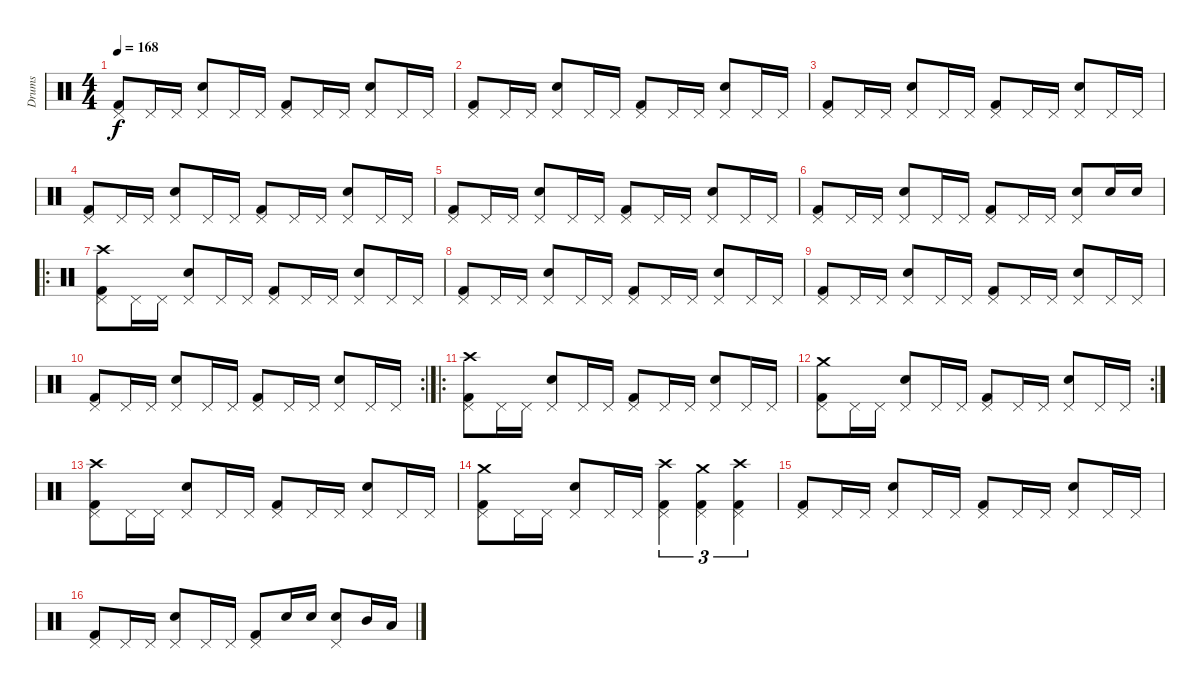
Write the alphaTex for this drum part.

\track ("Drums" "Drums") {instrument percussion}
\staff {score}
\articulation defaults
\ts (4 4)
\tempo 168
\clef neutral
\ks c
("Kick (hit) 2" "Pedal Hi-Hat (hit)").8{dy f} "Pedal Hi-Hat (hit)".16 "Pedal Hi-Hat (hit)".16 ("Snare (hit) 2" "Pedal Hi-Hat (hit)").8 "Pedal Hi-Hat (hit)".16 "Pedal Hi-Hat (hit)".16 ("Kick (hit) 2" "Pedal Hi-Hat (hit)").8 "Pedal Hi-Hat (hit)".16 "Pedal Hi-Hat (hit)".16 ("Snare (hit) 2" "Pedal Hi-Hat (hit)").8 "Pedal Hi-Hat (hit)".16 "Pedal Hi-Hat (hit)".16 |
("Kick (hit) 2" "Pedal Hi-Hat (hit)").8 "Pedal Hi-Hat (hit)".16 "Pedal Hi-Hat (hit)".16 ("Snare (hit) 2" "Pedal Hi-Hat (hit)").8 "Pedal Hi-Hat (hit)".16 "Pedal Hi-Hat (hit)".16 ("Kick (hit) 2" "Pedal Hi-Hat (hit)").8 "Pedal Hi-Hat (hit)".16 "Pedal Hi-Hat (hit)".16 ("Snare (hit) 2" "Pedal Hi-Hat (hit)").8 "Pedal Hi-Hat (hit)".16 "Pedal Hi-Hat (hit)".16 |
("Kick (hit) 2" "Pedal Hi-Hat (hit)").8 "Pedal Hi-Hat (hit)".16 "Pedal Hi-Hat (hit)".16 ("Snare (hit) 2" "Pedal Hi-Hat (hit)").8 "Pedal Hi-Hat (hit)".16 "Pedal Hi-Hat (hit)".16 ("Kick (hit) 2" "Pedal Hi-Hat (hit)").8 "Pedal Hi-Hat (hit)".16 "Pedal Hi-Hat (hit)".16 ("Snare (hit) 2" "Pedal Hi-Hat (hit)").8 "Pedal Hi-Hat (hit)".16 "Pedal Hi-Hat (hit)".16 |
("Kick (hit) 2" "Pedal Hi-Hat (hit)").8 "Pedal Hi-Hat (hit)".16 "Pedal Hi-Hat (hit)".16 ("Snare (hit) 2" "Pedal Hi-Hat (hit)").8 "Pedal Hi-Hat (hit)".16 "Pedal Hi-Hat (hit)".16 ("Kick (hit) 2" "Pedal Hi-Hat (hit)").8 "Pedal Hi-Hat (hit)".16 "Pedal Hi-Hat (hit)".16 ("Snare (hit) 2" "Pedal Hi-Hat (hit)").8 "Pedal Hi-Hat (hit)".16 "Pedal Hi-Hat (hit)".16 |
("Kick (hit) 2" "Pedal Hi-Hat (hit)").8 "Pedal Hi-Hat (hit)".16 "Pedal Hi-Hat (hit)".16 ("Snare (hit) 2" "Pedal Hi-Hat (hit)").8 "Pedal Hi-Hat (hit)".16 "Pedal Hi-Hat (hit)".16 ("Kick (hit) 2" "Pedal Hi-Hat (hit)").8 "Pedal Hi-Hat (hit)".16 "Pedal Hi-Hat (hit)".16 ("Snare (hit) 2" "Pedal Hi-Hat (hit)").8 "Pedal Hi-Hat (hit)".16 "Pedal Hi-Hat (hit)".16 |
("Kick (hit) 2" "Pedal Hi-Hat (hit)").8 "Pedal Hi-Hat (hit)".16 "Pedal Hi-Hat (hit)".16 ("Snare (hit) 2" "Pedal Hi-Hat (hit)").8 "Pedal Hi-Hat (hit)".16 "Pedal Hi-Hat (hit)".16 ("Kick (hit) 2" "Pedal Hi-Hat (hit)").8 "Pedal Hi-Hat (hit)".16 "Pedal Hi-Hat (hit)".16 ("Snare (hit) 2" "Pedal Hi-Hat (hit)").8 "Snare (hit) 2".16 "Snare (hit) 2".16 |
\ro
("Kick (hit) 2" "Pedal Hi-Hat (hit)" "Crash high (hit)").8 "Pedal Hi-Hat (hit)".16 "Pedal Hi-Hat (hit)".16 ("Snare (hit) 2" "Pedal Hi-Hat (hit)").8 "Pedal Hi-Hat (hit)".16 "Pedal Hi-Hat (hit)".16 ("Kick (hit) 2" "Pedal Hi-Hat (hit)").8 "Pedal Hi-Hat (hit)".16 "Pedal Hi-Hat (hit)".16 ("Snare (hit) 2" "Pedal Hi-Hat (hit)").8 "Pedal Hi-Hat (hit)".16 "Pedal Hi-Hat (hit)".16 |
("Kick (hit) 2" "Pedal Hi-Hat (hit)").8 "Pedal Hi-Hat (hit)".16 "Pedal Hi-Hat (hit)".16 ("Snare (hit) 2" "Pedal Hi-Hat (hit)").8 "Pedal Hi-Hat (hit)".16 "Pedal Hi-Hat (hit)".16 ("Kick (hit) 2" "Pedal Hi-Hat (hit)").8 "Pedal Hi-Hat (hit)".16 "Pedal Hi-Hat (hit)".16 ("Snare (hit) 2" "Pedal Hi-Hat (hit)").8 "Pedal Hi-Hat (hit)".16 "Pedal Hi-Hat (hit)".16 |
("Kick (hit) 2" "Pedal Hi-Hat (hit)").8 "Pedal Hi-Hat (hit)".16 "Pedal Hi-Hat (hit)".16 ("Snare (hit) 2" "Pedal Hi-Hat (hit)").8 "Pedal Hi-Hat (hit)".16 "Pedal Hi-Hat (hit)".16 ("Kick (hit) 2" "Pedal Hi-Hat (hit)").8 "Pedal Hi-Hat (hit)".16 "Pedal Hi-Hat (hit)".16 ("Snare (hit) 2" "Pedal Hi-Hat (hit)").8 "Pedal Hi-Hat (hit)".16 "Pedal Hi-Hat (hit)".16 |
\rc 2
("Kick (hit) 2" "Pedal Hi-Hat (hit)").8 "Pedal Hi-Hat (hit)".16 "Pedal Hi-Hat (hit)".16 ("Snare (hit) 2" "Pedal Hi-Hat (hit)").8 "Pedal Hi-Hat (hit)".16 "Pedal Hi-Hat (hit)".16 ("Kick (hit) 2" "Pedal Hi-Hat (hit)").8 "Pedal Hi-Hat (hit)".16 "Pedal Hi-Hat (hit)".16 ("Snare (hit) 2" "Pedal Hi-Hat (hit)").8 "Pedal Hi-Hat (hit)".16 "Pedal Hi-Hat (hit)".16 |
\ro
("Kick (hit) 2" "Pedal Hi-Hat (hit)" "Crash high (hit)").8 "Pedal Hi-Hat (hit)".16 "Pedal Hi-Hat (hit)".16 ("Snare (hit) 2" "Pedal Hi-Hat (hit)").8 "Pedal Hi-Hat (hit)".16 "Pedal Hi-Hat (hit)".16 ("Kick (hit) 2" "Pedal Hi-Hat (hit)").8 "Pedal Hi-Hat (hit)".16 "Pedal Hi-Hat (hit)".16 ("Snare (hit) 2" "Pedal Hi-Hat (hit)").8 "Pedal Hi-Hat (hit)".16 "Pedal Hi-Hat (hit)".16 |
\rc 2
("Kick (hit) 2" "Pedal Hi-Hat (hit)" "Crash medium (hit)").8 "Pedal Hi-Hat (hit)".16 "Pedal Hi-Hat (hit)".16 ("Snare (hit) 2" "Pedal Hi-Hat (hit)").8 "Pedal Hi-Hat (hit)".16 "Pedal Hi-Hat (hit)".16 ("Kick (hit) 2" "Pedal Hi-Hat (hit)").8 "Pedal Hi-Hat (hit)".16 "Pedal Hi-Hat (hit)".16 ("Snare (hit) 2" "Pedal Hi-Hat (hit)").8 "Pedal Hi-Hat (hit)".16 "Pedal Hi-Hat (hit)".16 |
("Kick (hit) 2" "Pedal Hi-Hat (hit)" "Crash high (hit)").8 "Pedal Hi-Hat (hit)".16 "Pedal Hi-Hat (hit)".16 ("Snare (hit) 2" "Pedal Hi-Hat (hit)").8 "Pedal Hi-Hat (hit)".16 "Pedal Hi-Hat (hit)".16 ("Kick (hit) 2" "Pedal Hi-Hat (hit)").8 "Pedal Hi-Hat (hit)".16 "Pedal Hi-Hat (hit)".16 ("Snare (hit) 2" "Pedal Hi-Hat (hit)").8 "Pedal Hi-Hat (hit)".16 "Pedal Hi-Hat (hit)".16 |
("Kick (hit) 2" "Pedal Hi-Hat (hit)" "Crash medium (hit)").8 "Pedal Hi-Hat (hit)".16 "Pedal Hi-Hat (hit)".16 ("Snare (hit) 2" "Pedal Hi-Hat (hit)").8 "Pedal Hi-Hat (hit)".16 "Pedal Hi-Hat (hit)".16 ("Kick (hit) 2" "Pedal Hi-Hat (hit)" "Crash high (hit)").4{tu (3 2)} ("Kick (hit) 2" "Pedal Hi-Hat (hit)" "Crash medium (hit)").4{tu (3 2)} ("Kick (hit) 2" "Pedal Hi-Hat (hit)" "Crash high (hit)").4{tu (3 2)} |
("Kick (hit) 2" "Pedal Hi-Hat (hit)").8 "Pedal Hi-Hat (hit)".16 "Pedal Hi-Hat (hit)".16 ("Snare (hit) 2" "Pedal Hi-Hat (hit)").8 "Pedal Hi-Hat (hit)".16 "Pedal Hi-Hat (hit)".16 ("Kick (hit) 2" "Pedal Hi-Hat (hit)").8 "Pedal Hi-Hat (hit)".16 "Pedal Hi-Hat (hit)".16 ("Snare (hit) 2" "Pedal Hi-Hat (hit)").8 "Pedal Hi-Hat (hit)".16 "Pedal Hi-Hat (hit)".16 |
("Kick (hit) 2" "Pedal Hi-Hat (hit)").8 "Pedal Hi-Hat (hit)".16 "Pedal Hi-Hat (hit)".16 ("Snare (hit) 2" "Pedal Hi-Hat (hit)").8 "Pedal Hi-Hat (hit)".16 "Pedal Hi-Hat (hit)".16 ("Kick (hit) 2" "Pedal Hi-Hat (hit)").8 "Snare (hit) 2".16 "Snare (hit) 2".16 ("Snare (hit) 2" "Pedal Hi-Hat (hit)").8 "Mid Tom (hit)".16 "Low Tom (hit)".16
